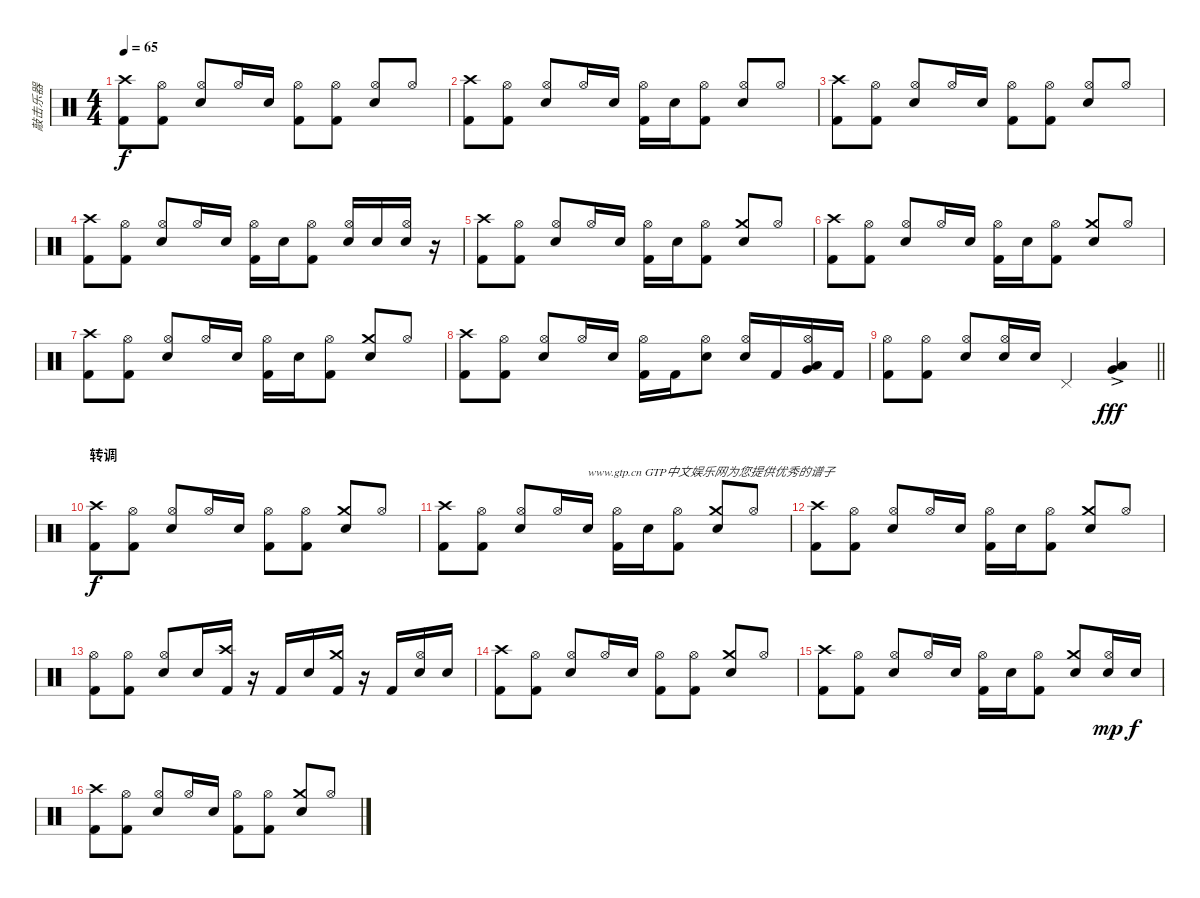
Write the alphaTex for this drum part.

\track ("敲击乐器" "敲击乐器") {instrument percussion}
\staff {score}
\articulation defaults
\ts (4 4)
\tempo 65
\clef neutral
\ks c
("Crash high (hit)" "Kick (hit) 2").8{dy f} ("Hi-Hat (open)" "Kick (hit) 2").8 ("Hi-Hat (open)" "Electric Snare (hit)").8{beam Up} "Hi-Hat (open)".16{beam Up} "Electric Snare (hit)".16{beam Up} ("Hi-Hat (open)" "Kick (hit) 2").8 ("Hi-Hat (open)" "Kick (hit) 2").8 ("Hi-Hat (open)" "Electric Snare (hit)").8{beam Up} "Hi-Hat (open)".8{beam Up} |
("Crash high (hit)" "Kick (hit) 2").8 ("Hi-Hat (open)" "Kick (hit) 2").8 ("Hi-Hat (open)" "Electric Snare (hit)").8{beam Up} "Hi-Hat (open)".16{beam Up} "Electric Snare (hit)".16{beam Up} ("Hi-Hat (open)" "Kick (hit) 2").16{beam Down} "Electric Snare (hit)".16{beam Down} ("Hi-Hat (open)" "Kick (hit) 2").8{beam Down} ("Hi-Hat (open)" "Electric Snare (hit)").8{beam Up} "Hi-Hat (open)".8{beam Up} |
("Crash high (hit)" "Kick (hit) 2").8 ("Hi-Hat (open)" "Kick (hit) 2").8 ("Hi-Hat (open)" "Electric Snare (hit)").8{beam Up} "Hi-Hat (open)".16{beam Up} "Electric Snare (hit)".16{beam Up} ("Hi-Hat (open)" "Kick (hit) 2").8 ("Hi-Hat (open)" "Kick (hit) 2").8 ("Hi-Hat (open)" "Electric Snare (hit)").8{beam Up} "Hi-Hat (open)".8{beam Up} |
("Crash high (hit)" "Kick (hit) 2").8 ("Hi-Hat (open)" "Kick (hit) 2").8 ("Hi-Hat (open)" "Electric Snare (hit)").8{beam Up} "Hi-Hat (open)".16{beam Up} "Electric Snare (hit)".16{beam Up} ("Hi-Hat (open)" "Kick (hit) 2").16 "Electric Snare (hit)".16 ("Hi-Hat (open)" "Kick (hit) 2").8 ("Hi-Hat (open)" "Electric Snare (hit)").16{beam Up} "Electric Snare (hit)".16{beam Up} ("Hi-Hat (open)" "Electric Snare (hit)").16{beam Up} r.16 |
("Crash high (hit)" "Kick (hit) 2").8 ("Hi-Hat (open)" "Kick (hit) 2").8 ("Hi-Hat (open)" "Electric Snare (hit)").8{beam Up} "Hi-Hat (open)".16{beam Up} "Electric Snare (hit)".16{beam Up} ("Hi-Hat (open)" "Kick (hit) 2").16{beam Down} "Electric Snare (hit)".16{beam Down} ("Hi-Hat (open)" "Kick (hit) 2").8{beam Down} ("Crash medium (hit)" "Electric Snare (hit)").8{beam Up} "Hi-Hat (open)".8{beam Up} |
("Crash high (hit)" "Kick (hit) 2").8 ("Hi-Hat (open)" "Kick (hit) 2").8 ("Hi-Hat (open)" "Electric Snare (hit)").8{beam Up} "Hi-Hat (open)".16{beam Up} "Electric Snare (hit)".16{beam Up} ("Hi-Hat (open)" "Kick (hit) 2").16{beam Down} "Electric Snare (hit)".16{beam Down} ("Hi-Hat (open)" "Kick (hit) 2").8{beam Down} ("Crash medium (hit)" "Electric Snare (hit)").8{beam Up} "Hi-Hat (open)".8{beam Up} |
("Crash high (hit)" "Kick (hit) 2").8 ("Hi-Hat (open)" "Kick (hit) 2").8 ("Hi-Hat (open)" "Electric Snare (hit)").8{beam Up} "Hi-Hat (open)".16{beam Up} "Electric Snare (hit)".16{beam Up} ("Hi-Hat (open)" "Kick (hit) 2").16{beam Down} "Electric Snare (hit)".16{beam Down} ("Hi-Hat (open)" "Kick (hit) 2").8{beam Down} ("Crash medium (hit)" "Electric Snare (hit)").8{beam Up} "Hi-Hat (open)".8{beam Up} |
("Crash high (hit)" "Kick (hit) 2").8 ("Hi-Hat (open)" "Kick (hit) 2").8 ("Hi-Hat (open)" "Electric Snare (hit)").8{beam Up} "Hi-Hat (open)".16{beam Up} "Electric Snare (hit)".16{beam Up} ("Hi-Hat (open)" "Kick (hit) 2").16 "Kick (hit) 2".16 ("Hi-Hat (open)" "Electric Snare (hit)").8 ("Hi-Hat (open)" "Electric Snare (hit)").16{beam Up} "Kick (hit) 2".16{beam Up} ("Hi-Hat (open)" "Very Low Tom (hit)" "Low Floor Tom (hit)").16{beam Up} "Kick (hit) 2".16{beam Up} |
\barLineRight lightlight
("Hi-Hat (open)" "Kick (hit) 2").8 ("Hi-Hat (open)" "Kick (hit) 2").8 ("Hi-Hat (open)" "Electric Snare (hit)").8{beam Up} ("Hi-Hat (open)" "Electric Snare (hit)").16{beam Up} "Electric Snare (hit)".16{beam Up} "Pedal Hi-Hat (hit)".4 ("Very Low Tom (hit)" "Low Floor Tom (hit)"{ac}).4{dy fff} |
\section ("" "转调")
("Crash high (hit)" "Kick (hit) 2").8{dy f} ("Hi-Hat (open)" "Kick (hit) 2").8 ("Hi-Hat (open)" "Electric Snare (hit)").8{beam Up} "Hi-Hat (open)".16{beam Up} "Electric Snare (hit)".16{beam Up} ("Hi-Hat (open)" "Kick (hit) 2").8 ("Hi-Hat (open)" "Kick (hit) 2").8 ("Crash medium (hit)" "Electric Snare (hit)").8{beam Up} "Hi-Hat (open)".8{beam Up} |
("Crash high (hit)" "Kick (hit) 2").8 ("Hi-Hat (open)" "Kick (hit) 2").8 ("Hi-Hat (open)" "Electric Snare (hit)").8{beam Up} "Hi-Hat (open)".16{beam Up} "Electric Snare (hit)".16{txt "www.gtp.cn GTP中文娱乐网为您提供优秀的谱子" beam Up} ("Hi-Hat (open)" "Kick (hit) 2").16{beam Down} "Electric Snare (hit)".16{beam Down} ("Hi-Hat (open)" "Kick (hit) 2").8{beam Down} ("Crash medium (hit)" "Electric Snare (hit)").8{beam Up} "Hi-Hat (open)".8{beam Up} |
("Crash high (hit)" "Kick (hit) 2").8 ("Hi-Hat (open)" "Kick (hit) 2").8 ("Hi-Hat (open)" "Electric Snare (hit)").8{beam Up} "Hi-Hat (open)".16{beam Up} "Electric Snare (hit)".16{beam Up} ("Hi-Hat (open)" "Kick (hit) 2").16{beam Down} "Electric Snare (hit)".16{beam Down} ("Hi-Hat (open)" "Kick (hit) 2").8{beam Down} ("Crash medium (hit)" "Electric Snare (hit)").8{beam Up} "Hi-Hat (open)".8{beam Up} |
("Hi-Hat (open)" "Kick (hit) 2").8 ("Hi-Hat (open)" "Kick (hit) 2").8 ("Hi-Hat (open)" "Electric Snare (hit)").8{beam Up} "Electric Snare (hit)".16{beam Up} ("Crash high (hit)" "Kick (hit) 2").16{beam Up} r.16 "Kick (hit) 2".16{beam Up} "Electric Snare (hit)".16{beam Up} ("Crash medium (hit)" "Kick (hit) 2").16{beam Up} r.16{beam Up} "Kick (hit) 2".16{beam Up} ("Hi-Hat (open)" "Electric Snare (hit)").16{beam Up} "Electric Snare (hit)".16{beam Up} |
("Crash high (hit)" "Kick (hit) 2").8 ("Hi-Hat (open)" "Kick (hit) 2").8 ("Hi-Hat (open)" "Electric Snare (hit)").8{beam Up} "Hi-Hat (open)".16{beam Up} "Electric Snare (hit)".16{beam Up} ("Hi-Hat (open)" "Kick (hit) 2").8 ("Hi-Hat (open)" "Kick (hit) 2").8 ("Crash medium (hit)" "Electric Snare (hit)").8{beam Up} "Hi-Hat (open)".8{beam Up} |
("Crash high (hit)" "Kick (hit) 2").8 ("Hi-Hat (open)" "Kick (hit) 2").8 ("Hi-Hat (open)" "Electric Snare (hit)").8{beam Up} "Hi-Hat (open)".16{beam Up} "Electric Snare (hit)".16{beam Up} ("Hi-Hat (open)" "Kick (hit) 2").16{beam Down} "Electric Snare (hit)".16{beam Down} ("Hi-Hat (open)" "Kick (hit) 2").8{beam Down} ("Crash medium (hit)" "Electric Snare (hit)").8{beam Up} ("Hi-Hat (open)" "Electric Snare (hit)").16{dy mp} "Electric Snare (hit)".16{dy f} |
("Crash high (hit)" "Kick (hit) 2").8 ("Hi-Hat (open)" "Kick (hit) 2").8 ("Hi-Hat (open)" "Electric Snare (hit)").8{beam Up} "Hi-Hat (open)".16{beam Up} "Electric Snare (hit)".16{beam Up} ("Hi-Hat (open)" "Kick (hit) 2").8 ("Hi-Hat (open)" "Kick (hit) 2").8 ("Crash medium (hit)" "Electric Snare (hit)").8{beam Up} "Hi-Hat (open)".8{beam Up}
